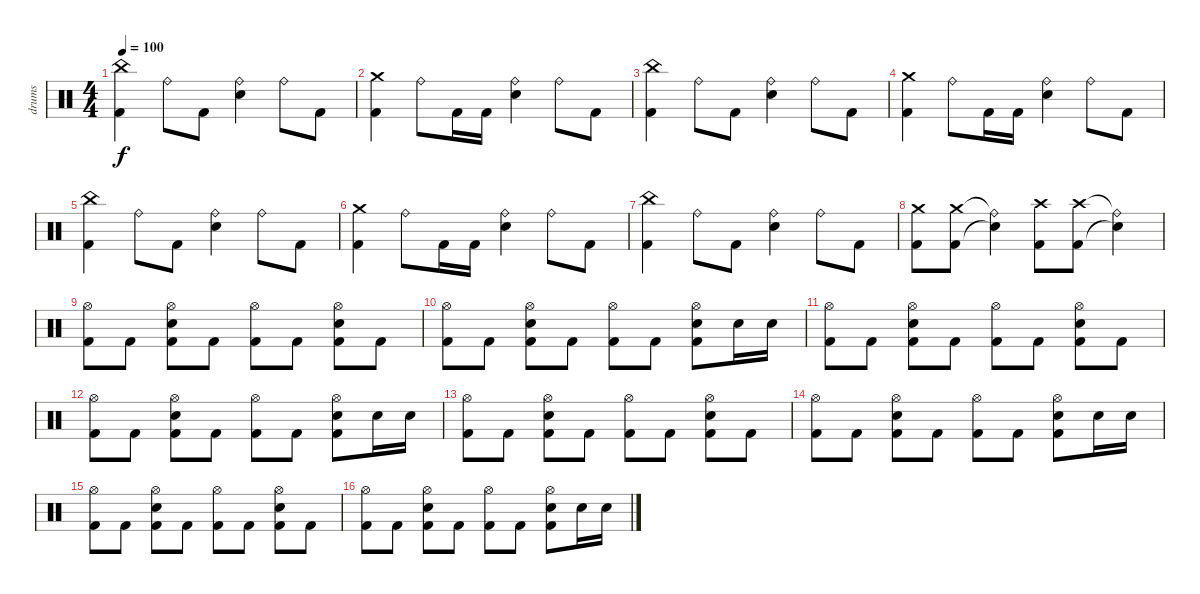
\track ("drums" "drums") {instrument percussion}
\staff {score}
\articulation defaults
\ts (4 4)
\tempo 100
\clef neutral
\ks c
("China (hit)" "Kick (hit) 2").4{dy f} "Ride (bell)".8 "Kick (hit) 2".8 ("Ride (bell)" "Snare (hit) 2").4 "Ride (bell)".8 "Kick (hit) 2".8 |
("Crash medium (hit)" "Kick (hit) 2").4 "Ride (bell)".8 "Kick (hit) 2".16 "Kick (hit) 2".16 ("Ride (bell)" "Snare (hit) 2").4 "Ride (bell)".8 "Kick (hit) 2".8 |
("China (hit)" "Kick (hit) 2").4 "Ride (bell)".8 "Kick (hit) 2".8 ("Ride (bell)" "Snare (hit) 2").4 "Ride (bell)".8 "Kick (hit) 2".8 |
("Crash medium (hit)" "Kick (hit) 2").4 "Ride (bell)".8 "Kick (hit) 2".16 "Kick (hit) 2".16 ("Ride (bell)" "Snare (hit) 2").4 "Ride (bell)".8 "Kick (hit) 2".8 |
("China (hit)" "Kick (hit) 2").4 "Ride (bell)".8 "Kick (hit) 2".8 ("Ride (bell)" "Snare (hit) 2").4 "Ride (bell)".8 "Kick (hit) 2".8 |
("Crash medium (hit)" "Kick (hit) 2").4 "Ride (bell)".8 "Kick (hit) 2".16 "Kick (hit) 2".16 ("Ride (bell)" "Snare (hit) 2").4 "Ride (bell)".8 "Kick (hit) 2".8 |
("China (hit)" "Kick (hit) 2").4 "Ride (bell)".8 "Kick (hit) 2".8 ("Ride (bell)" "Snare (hit) 2").4 "Ride (bell)".8 "Kick (hit) 2".8 |
("Crash medium (hit)" "Kick (hit) 2").8 ("Crash medium (hit)" "Kick (hit) 2").8 ("Ride (bell)"{t} "Snare (hit)"{t}).4 ("Crash high (hit)" "Kick (hit) 2").8 ("Crash high (hit)" "Kick (hit) 2").8 ("Ride (bell)"{t} "Snare (hit)"{t}).4 |
("Hi-Hat (open)" "Kick (hit) 2").8 "Kick (hit) 2".8 ("Hi-Hat (open)" "Snare (hit) 2" "Kick (hit) 2").8 "Kick (hit) 2".8 ("Hi-Hat (open)" "Kick (hit) 2").8 "Kick (hit) 2".8 ("Hi-Hat (open)" "Snare (hit) 2" "Kick (hit) 2").8 "Kick (hit) 2".8 |
("Hi-Hat (open)" "Kick (hit) 2").8 "Kick (hit) 2".8 ("Hi-Hat (open)" "Snare (hit) 2" "Kick (hit) 2").8 "Kick (hit) 2".8 ("Hi-Hat (open)" "Kick (hit) 2").8 "Kick (hit) 2".8 ("Hi-Hat (open)" "Snare (hit) 2" "Kick (hit) 2").8 "Snare (hit) 2".16 "Snare (hit) 2".16 |
("Hi-Hat (open)" "Kick (hit) 2").8 "Kick (hit) 2".8 ("Hi-Hat (open)" "Snare (hit) 2" "Kick (hit) 2").8 "Kick (hit) 2".8 ("Hi-Hat (open)" "Kick (hit) 2").8 "Kick (hit) 2".8 ("Hi-Hat (open)" "Snare (hit) 2" "Kick (hit) 2").8 "Kick (hit) 2".8 |
("Hi-Hat (open)" "Kick (hit) 2").8 "Kick (hit) 2".8 ("Hi-Hat (open)" "Snare (hit) 2" "Kick (hit) 2").8 "Kick (hit) 2".8 ("Hi-Hat (open)" "Kick (hit) 2").8 "Kick (hit) 2".8 ("Hi-Hat (open)" "Snare (hit) 2" "Kick (hit) 2").8 "Snare (hit) 2".16 "Snare (hit) 2".16 |
("Hi-Hat (open)" "Kick (hit) 2").8 "Kick (hit) 2".8 ("Hi-Hat (open)" "Snare (hit) 2" "Kick (hit) 2").8 "Kick (hit) 2".8 ("Hi-Hat (open)" "Kick (hit) 2").8 "Kick (hit) 2".8 ("Hi-Hat (open)" "Snare (hit) 2" "Kick (hit) 2").8 "Kick (hit) 2".8 |
("Hi-Hat (open)" "Kick (hit) 2").8 "Kick (hit) 2".8 ("Hi-Hat (open)" "Snare (hit) 2" "Kick (hit) 2").8 "Kick (hit) 2".8 ("Hi-Hat (open)" "Kick (hit) 2").8 "Kick (hit) 2".8 ("Hi-Hat (open)" "Snare (hit) 2" "Kick (hit) 2").8 "Snare (hit) 2".16 "Snare (hit) 2".16 |
("Hi-Hat (open)" "Kick (hit) 2").8 "Kick (hit) 2".8 ("Hi-Hat (open)" "Snare (hit) 2" "Kick (hit) 2").8 "Kick (hit) 2".8 ("Hi-Hat (open)" "Kick (hit) 2").8 "Kick (hit) 2".8 ("Hi-Hat (open)" "Snare (hit) 2" "Kick (hit) 2").8 "Kick (hit) 2".8 |
("Hi-Hat (open)" "Kick (hit) 2").8 "Kick (hit) 2".8 ("Hi-Hat (open)" "Snare (hit) 2" "Kick (hit) 2").8 "Kick (hit) 2".8 ("Hi-Hat (open)" "Kick (hit) 2").8 "Kick (hit) 2".8 ("Hi-Hat (open)" "Snare (hit) 2" "Kick (hit) 2").8 "Snare (hit) 2".16 "Snare (hit) 2".16
